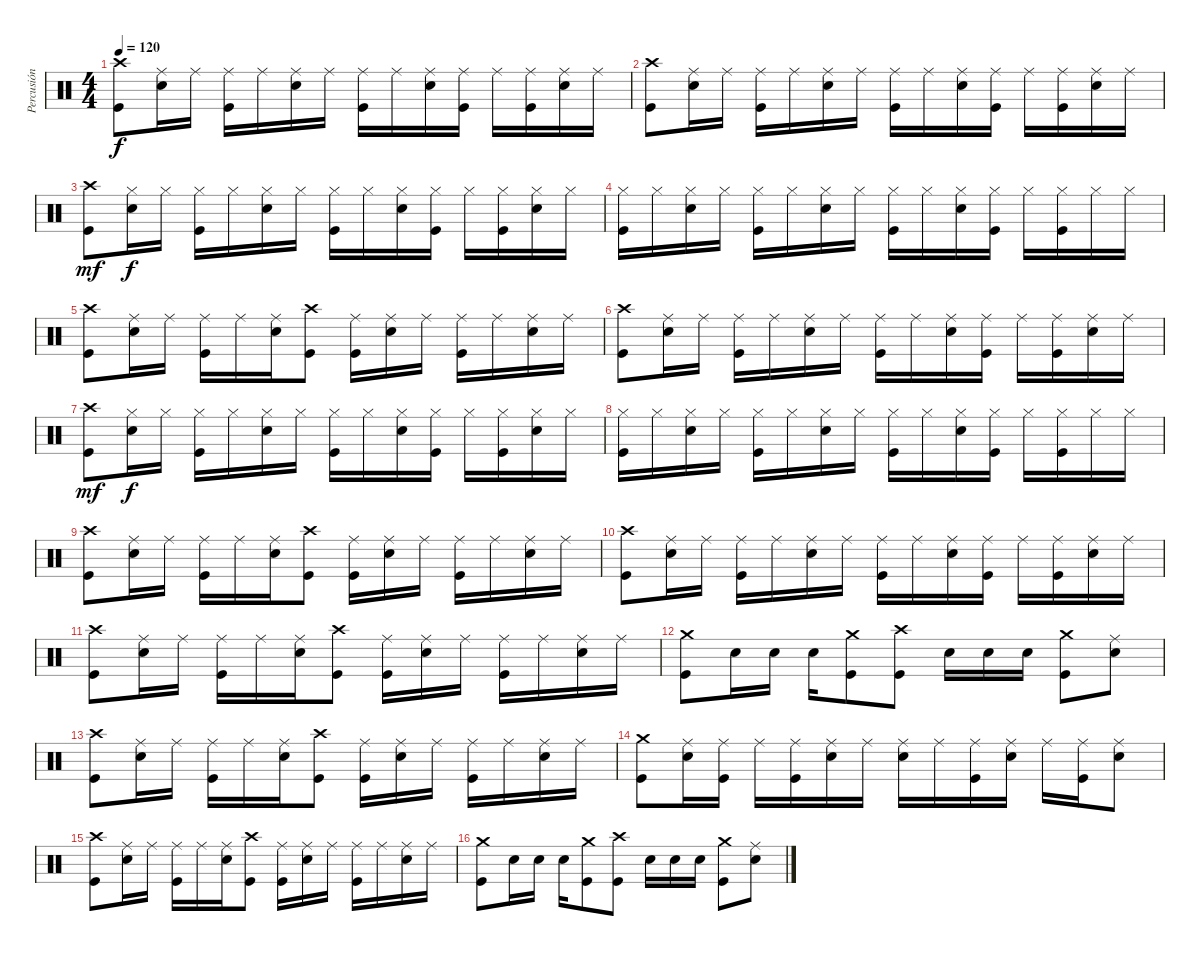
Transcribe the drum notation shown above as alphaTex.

\track ("Percusión" "Percusión") {instrument percussion}
\staff {score}
\articulation defaults
\ts (4 4)
\tempo 120
\clef neutral
\ks c
("Kick (hit)" "Crash high (hit)").8{dy f} ("Snare (hit) 2" "Ride (middle)").16 "Ride (middle)".16 ("Kick (hit)" "Ride (middle)").16 "Ride (middle)".16 ("Snare (hit) 2" "Ride (middle)").16 "Ride (middle)".16 ("Kick (hit)" "Ride (middle)").16 "Ride (middle)".16 ("Snare (hit) 2" "Ride (middle)").16 ("Kick (hit)" "Ride (middle)").16 "Ride (middle)".16 ("Kick (hit)" "Ride (middle)").16 ("Snare (hit) 2" "Ride (middle)").16 "Ride (middle)".16 |
("Kick (hit)" "Crash high (hit)").8 ("Snare (hit) 2" "Ride (middle)").16 "Ride (middle)".16 ("Kick (hit)" "Ride (middle)").16 "Ride (middle)".16 ("Snare (hit) 2" "Ride (middle)").16 "Ride (middle)".16 ("Kick (hit)" "Ride (middle)").16 "Ride (middle)".16 ("Snare (hit) 2" "Ride (middle)").16 ("Kick (hit)" "Ride (middle)").16 "Ride (middle)".16 ("Kick (hit)" "Ride (middle)").16 ("Snare (hit) 2" "Ride (middle)").16 "Ride (middle)".16 |
("Kick (hit)" "Crash high (hit)").8{dy mf} ("Snare (hit) 2" "Hi-Hat (closed)").16{dy f} "Hi-Hat (closed)".16 ("Kick (hit)" "Hi-Hat (closed)").16 "Hi-Hat (closed)".16 ("Snare (hit) 2" "Hi-Hat (closed)").16 "Hi-Hat (closed)".16 ("Kick (hit)" "Hi-Hat (closed)").16 "Hi-Hat (closed)".16 ("Snare (hit) 2" "Hi-Hat (closed)").16 ("Kick (hit)" "Hi-Hat (closed)").16 "Hi-Hat (closed)".16 ("Kick (hit)" "Hi-Hat (closed)").16 ("Snare (hit) 2" "Hi-Hat (closed)").16 "Hi-Hat (closed)".16 |
("Kick (hit)" "Hi-Hat (closed)").16 "Hi-Hat (closed)".16 ("Snare (hit) 2" "Hi-Hat (closed)").16 "Hi-Hat (closed)".16 ("Kick (hit)" "Hi-Hat (closed)").16 "Hi-Hat (closed)".16 ("Snare (hit) 2" "Hi-Hat (closed)").16 "Hi-Hat (closed)".16 ("Kick (hit)" "Hi-Hat (closed)").16 "Hi-Hat (closed)".16 ("Snare (hit) 2" "Hi-Hat (closed)").16 ("Kick (hit)" "Hi-Hat (closed)").16 "Hi-Hat (closed)".16 ("Kick (hit)" "Hi-Hat (closed)").16 "Hi-Hat (closed)".16 "Hi-Hat (closed)".16 |
("Kick (hit)" "Crash high (hit)").8 ("Snare (hit) 2" "Ride (middle)").16 "Ride (middle)".16 ("Kick (hit)" "Ride (middle)").16 "Ride (middle)".16 ("Snare (hit) 2" "Ride (middle)").16 ("Kick (hit)" "Crash high (hit)").8 ("Kick (hit)" "Ride (middle)").16 ("Snare (hit) 2" "Ride (middle)").16 "Ride (middle)".16 ("Kick (hit)" "Ride (middle)").16 "Ride (middle)".16 ("Snare (hit) 2" "Ride (middle)").16 "Ride (middle)".16 |
("Kick (hit)" "Crash high (hit)").8 ("Snare (hit) 2" "Ride (middle)").16 "Ride (middle)".16 ("Kick (hit)" "Ride (middle)").16 "Ride (middle)".16 ("Snare (hit) 2" "Ride (middle)").16 "Ride (middle)".16 ("Kick (hit)" "Ride (middle)").16 "Ride (middle)".16 ("Snare (hit) 2" "Ride (middle)").16 ("Kick (hit)" "Ride (middle)").16 "Ride (middle)".16 ("Kick (hit)" "Ride (middle)").16 ("Snare (hit) 2" "Ride (middle)").16 "Ride (middle)".16 |
("Kick (hit)" "Crash high (hit)").8{dy mf} ("Snare (hit) 2" "Hi-Hat (closed)").16{dy f} "Hi-Hat (closed)".16 ("Kick (hit)" "Hi-Hat (closed)").16 "Hi-Hat (closed)".16 ("Snare (hit) 2" "Hi-Hat (closed)").16 "Hi-Hat (closed)".16 ("Kick (hit)" "Hi-Hat (closed)").16 "Hi-Hat (closed)".16 ("Snare (hit) 2" "Hi-Hat (closed)").16 ("Kick (hit)" "Hi-Hat (closed)").16 "Hi-Hat (closed)".16 ("Kick (hit)" "Hi-Hat (closed)").16 ("Snare (hit) 2" "Hi-Hat (closed)").16 "Hi-Hat (closed)".16 |
("Kick (hit)" "Hi-Hat (closed)").16 "Hi-Hat (closed)".16 ("Snare (hit) 2" "Hi-Hat (closed)").16 "Hi-Hat (closed)".16 ("Kick (hit)" "Hi-Hat (closed)").16 "Hi-Hat (closed)".16 ("Snare (hit) 2" "Hi-Hat (closed)").16 "Hi-Hat (closed)".16 ("Kick (hit)" "Hi-Hat (closed)").16 "Hi-Hat (closed)".16 ("Snare (hit) 2" "Hi-Hat (closed)").16 ("Kick (hit)" "Hi-Hat (closed)").16 "Hi-Hat (closed)".16 ("Kick (hit)" "Hi-Hat (closed)").16 "Hi-Hat (closed)".16 "Hi-Hat (closed)".16 |
("Kick (hit)" "Crash high (hit)").8 ("Snare (hit) 2" "Ride (middle)").16 "Ride (middle)".16 ("Kick (hit)" "Ride (middle)").16 "Ride (middle)".16 ("Snare (hit) 2" "Ride (middle)").16 ("Kick (hit)" "Crash high (hit)").8 ("Kick (hit)" "Ride (middle)").16 ("Snare (hit) 2" "Ride (middle)").16 "Ride (middle)".16 ("Kick (hit)" "Ride (middle)").16 "Ride (middle)".16 ("Snare (hit) 2" "Ride (middle)").16 "Ride (middle)".16 |
("Kick (hit)" "Crash high (hit)").8 ("Snare (hit) 2" "Ride (middle)").16 "Ride (middle)".16 ("Kick (hit)" "Ride (middle)").16 "Ride (middle)".16 ("Snare (hit) 2" "Ride (middle)").16 "Ride (middle)".16 ("Kick (hit)" "Ride (middle)").16 "Ride (middle)".16 ("Snare (hit) 2" "Ride (middle)").16 ("Kick (hit)" "Ride (middle)").16 "Ride (middle)".16 ("Kick (hit)" "Ride (middle)").16 ("Snare (hit) 2" "Ride (middle)").16 "Ride (middle)".16 |
("Kick (hit)" "Crash high (hit)").8 ("Snare (hit) 2" "Ride (middle)").16 "Ride (middle)".16 ("Kick (hit)" "Ride (middle)").16 "Ride (middle)".16 ("Snare (hit) 2" "Ride (middle)").16 ("Kick (hit)" "Crash high (hit)").8 ("Kick (hit)" "Ride (middle)").16 ("Snare (hit) 2" "Ride (middle)").16 "Ride (middle)".16 ("Kick (hit)" "Ride (middle)").16 "Ride (middle)".16 ("Snare (hit) 2" "Ride (middle)").16 "Ride (middle)".16 |
("Kick (hit)" "Crash medium (hit)").8 "Snare (hit) 2".16 "Snare (hit) 2".16 "Snare (hit) 2".16 ("Kick (hit)" "Crash medium (hit)").8 ("Kick (hit)" "Crash high (hit)").8 "Snare (hit) 2".16 "Snare (hit) 2".16 "Snare (hit) 2".16 ("Kick (hit)" "Crash medium (hit)").8 ("Snare (hit) 2" "Ride (middle)").8 |
("Kick (hit)" "Crash high (hit)").8 ("Snare (hit) 2" "Ride (middle)").16 "Ride (middle)".16 ("Kick (hit)" "Ride (middle)").16 "Ride (middle)".16 ("Snare (hit) 2" "Ride (middle)").16 ("Kick (hit)" "Crash high (hit)").8 ("Kick (hit)" "Ride (middle)").16 ("Snare (hit) 2" "Ride (middle)").16 "Ride (middle)".16 ("Kick (hit)" "Ride (middle)").16 "Ride (middle)".16 ("Snare (hit) 2" "Ride (middle)").16 "Ride (middle)".16 |
("Kick (hit)" "Crash medium (hit)").8 ("Snare (hit) 2" "Ride (middle)").16 ("Kick (hit)" "Ride (middle)").16 "Ride (middle)".16 ("Kick (hit)" "Ride (middle)").16 ("Snare (hit) 2" "Ride (middle)").16 "Ride (middle)".16 ("Snare (hit) 2" "Ride (middle)").16 "Ride (middle)".16 ("Kick (hit)" "Ride (middle)").16 ("Snare (hit) 2" "Ride (middle)").16 "Ride (middle)".16 ("Kick (hit)" "Ride (middle)").16 ("Snare (hit) 2" "Ride (middle)").8 |
("Kick (hit)" "Crash high (hit)").8 ("Snare (hit) 2" "Ride (middle)").16 "Ride (middle)".16 ("Kick (hit)" "Ride (middle)").16 "Ride (middle)".16 ("Snare (hit) 2" "Ride (middle)").16 ("Kick (hit)" "Crash high (hit)").8 ("Kick (hit)" "Ride (middle)").16 ("Snare (hit) 2" "Ride (middle)").16 "Ride (middle)".16 ("Kick (hit)" "Ride (middle)").16 "Ride (middle)".16 ("Snare (hit) 2" "Ride (middle)").16 "Ride (middle)".16 |
("Kick (hit)" "Crash medium (hit)").8 "Snare (hit) 2".16 "Snare (hit) 2".16 "Snare (hit) 2".16 ("Kick (hit)" "Crash medium (hit)").8 ("Kick (hit)" "Crash high (hit)").8 "Snare (hit) 2".16 "Snare (hit) 2".16 "Snare (hit) 2".16 ("Kick (hit)" "Crash medium (hit)").8 ("Snare (hit) 2" "Ride (middle)").8
